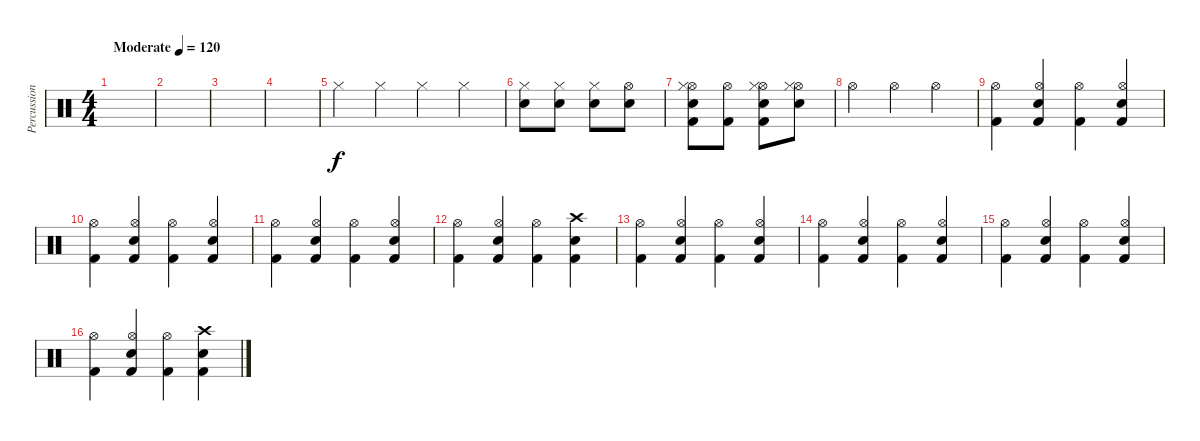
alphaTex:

\track ("Percussion" "Percussion") {instrument percussion}
\staff {score}
\articulation defaults
\ts (4 4)
\tempo (120 "Moderate")
\clef neutral
\ks c
|
|
|
|
"Hi-Hat (closed)".4 "Hi-Hat (closed)".4 "Hi-Hat (closed)".4 "Hi-Hat (closed)".4 |
("Electric Snare (hit)" "Hi-Hat (closed)").8 ("Electric Snare (hit)" "Hi-Hat (closed)").8 ("Electric Snare (hit)" "Hi-Hat (closed)").8 ("Electric Snare (hit)" "Hi-Hat (open)").8 |
("Hi-Hat (open)" "Electric Snare (hit)" "Hi-Hat (closed)" "Kick (hit) 2").8 ("Hi-Hat (open)" "Kick (hit) 2").8 ("Hi-Hat (open)" "Electric Snare (hit)" "Hi-Hat (closed)" "Kick (hit) 2").8 ("Hi-Hat (open)" "Electric Snare (hit)" "Hi-Hat (closed)").8 |
"Hi-Hat (open)".4 "Hi-Hat (open)".4 "Hi-Hat (open)".4 |
("Hi-Hat (open)" "Kick (hit) 2").4 ("Hi-Hat (open)" "Electric Snare (hit)" "Kick (hit) 2").4 ("Hi-Hat (open)" "Kick (hit) 2").4 ("Hi-Hat (open)" "Electric Snare (hit)" "Kick (hit) 2").4 |
("Hi-Hat (open)" "Kick (hit) 2").4 ("Hi-Hat (open)" "Electric Snare (hit)" "Kick (hit) 2").4 ("Hi-Hat (open)" "Kick (hit) 2").4 ("Hi-Hat (open)" "Electric Snare (hit)" "Kick (hit) 2").4 |
("Hi-Hat (open)" "Kick (hit) 2").4 ("Hi-Hat (open)" "Electric Snare (hit)" "Kick (hit) 2").4 ("Hi-Hat (open)" "Kick (hit) 2").4 ("Hi-Hat (open)" "Electric Snare (hit)" "Kick (hit) 2").4 |
("Hi-Hat (open)" "Kick (hit) 2").4 ("Hi-Hat (open)" "Electric Snare (hit)" "Kick (hit) 2").4 ("Hi-Hat (open)" "Kick (hit) 2").4 ("Crash high (hit)" "Electric Snare (hit)" "Kick (hit) 2").4 |
("Hi-Hat (open)" "Kick (hit) 2").4 ("Hi-Hat (open)" "Electric Snare (hit)" "Kick (hit) 2").4 ("Hi-Hat (open)" "Kick (hit) 2").4 ("Hi-Hat (open)" "Electric Snare (hit)" "Kick (hit) 2").4 |
("Hi-Hat (open)" "Kick (hit) 2").4 ("Hi-Hat (open)" "Electric Snare (hit)" "Kick (hit) 2").4 ("Hi-Hat (open)" "Kick (hit) 2").4 ("Hi-Hat (open)" "Electric Snare (hit)" "Kick (hit) 2").4 |
("Hi-Hat (open)" "Kick (hit) 2").4 ("Hi-Hat (open)" "Electric Snare (hit)" "Kick (hit) 2").4 ("Hi-Hat (open)" "Kick (hit) 2").4 ("Hi-Hat (open)" "Electric Snare (hit)" "Kick (hit) 2").4 |
("Hi-Hat (open)" "Kick (hit) 2").4 ("Hi-Hat (open)" "Electric Snare (hit)" "Kick (hit) 2").4 ("Hi-Hat (open)" "Kick (hit) 2").4 ("Crash high (hit)" "Electric Snare (hit)" "Kick (hit) 2").4
